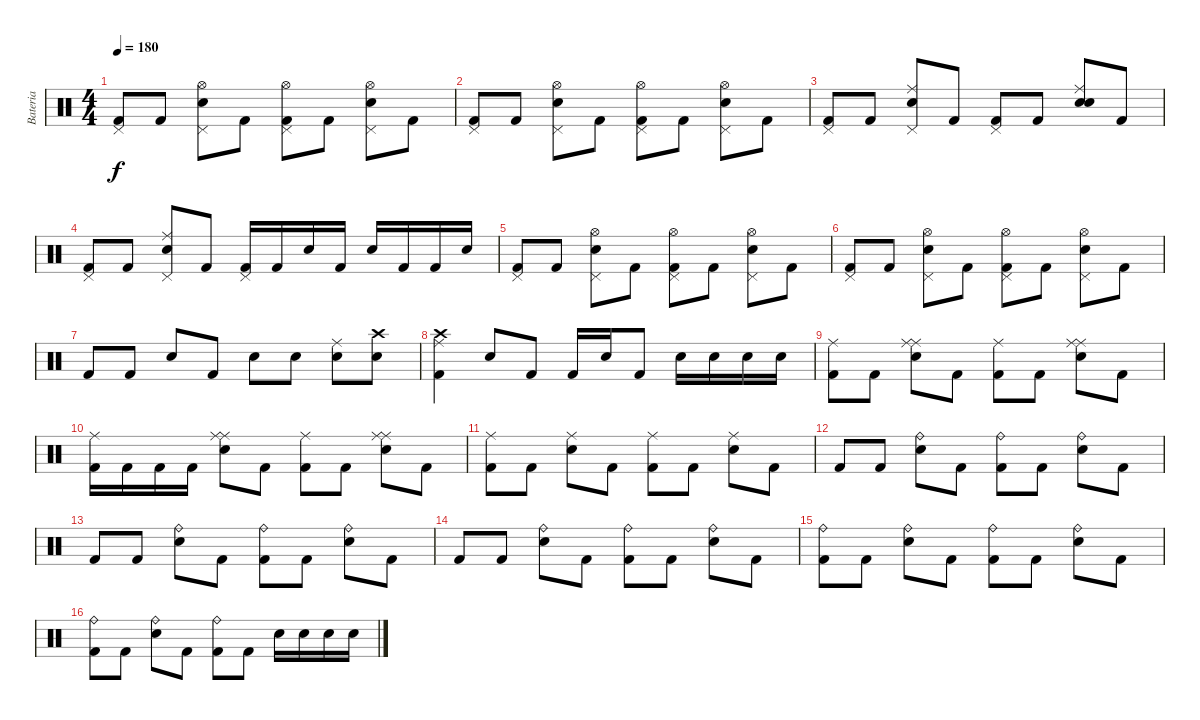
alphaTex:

\track ("Bateria" "Bateria") {instrument percussion}
\staff {score}
\articulation defaults
\ts (4 4)
\tempo 180
\clef neutral
\ks c
("Kick (hit) 2" "Pedal Hi-Hat (hit)").8{dy f} "Kick (hit) 2".8 ("Electric Snare (hit)" "Pedal Hi-Hat (hit)" "Hi-Hat (open)").8 "Kick (hit) 2".8 ("Kick (hit) 2" "Pedal Hi-Hat (hit)" "Hi-Hat (open)").8 "Kick (hit) 2".8 ("Electric Snare (hit)" "Pedal Hi-Hat (hit)" "Hi-Hat (open)").8 "Kick (hit) 2".8 |
("Kick (hit) 2" "Pedal Hi-Hat (hit)").8 "Kick (hit) 2".8 ("Electric Snare (hit)" "Pedal Hi-Hat (hit)" "Hi-Hat (open)").8 "Kick (hit) 2".8 ("Kick (hit) 2" "Pedal Hi-Hat (hit)" "Hi-Hat (open)").8 "Kick (hit) 2".8 ("Electric Snare (hit)" "Pedal Hi-Hat (hit)" "Hi-Hat (open)").8 "Kick (hit) 2".8 |
("Kick (hit) 2" "Pedal Hi-Hat (hit)").8 "Kick (hit) 2".8 ("Electric Snare (hit)" "Ride (middle)" "Pedal Hi-Hat (hit)").8 "Kick (hit) 2".8 ("Kick (hit) 2" "Pedal Hi-Hat (hit)").8 "Kick (hit) 2".8 ("Electric Snare (hit)" "Ride (middle)" "Snare (hit)").8 "Kick (hit) 2".8 |
("Kick (hit) 2" "Pedal Hi-Hat (hit)").8 "Kick (hit) 2".8 ("Electric Snare (hit)" "Ride (middle)" "Pedal Hi-Hat (hit)").8 "Kick (hit) 2".8 ("Kick (hit) 2" "Pedal Hi-Hat (hit)").16 "Kick (hit) 2".16 "Electric Snare (hit)".16 "Kick (hit) 2".16 "Electric Snare (hit)".16 "Kick (hit) 2".16 "Kick (hit) 2".16 "Electric Snare (hit)".16 |
("Kick (hit) 2" "Pedal Hi-Hat (hit)").8 "Kick (hit) 2".8 ("Electric Snare (hit)" "Pedal Hi-Hat (hit)" "Hi-Hat (open)").8 "Kick (hit) 2".8 ("Kick (hit) 2" "Pedal Hi-Hat (hit)" "Hi-Hat (open)").8 "Kick (hit) 2".8 ("Electric Snare (hit)" "Pedal Hi-Hat (hit)" "Hi-Hat (open)").8 "Kick (hit) 2".8 |
("Kick (hit) 2" "Pedal Hi-Hat (hit)").8 "Kick (hit) 2".8 ("Electric Snare (hit)" "Pedal Hi-Hat (hit)" "Hi-Hat (open)").8 "Kick (hit) 2".8 ("Kick (hit) 2" "Pedal Hi-Hat (hit)" "Hi-Hat (open)").8 "Kick (hit) 2".8 ("Electric Snare (hit)" "Pedal Hi-Hat (hit)" "Hi-Hat (open)").8 "Kick (hit) 2".8 |
"Kick (hit) 2".8 "Kick (hit) 2".8 "Electric Snare (hit)".8 "Kick (hit) 2".8 "Electric Snare (hit)".8 "Electric Snare (hit)".8 ("Electric Snare (hit)" "Ride (middle)").8 ("Electric Snare (hit)" "Crash high (hit)").8 |
("Kick (hit) 2" "Ride (middle)" "Crash high (hit)").4 "Electric Snare (hit)".8 "Kick (hit) 2".8 "Kick (hit) 2".16 "Electric Snare (hit)".16 "Kick (hit) 2".8 "Electric Snare (hit)".16 "Electric Snare (hit)".16 "Electric Snare (hit)".16 "Electric Snare (hit)".16 |
("Kick (hit) 2" "Ride (middle)").8 "Kick (hit) 2".8 ("Electric Snare (hit)" "Ride (middle)" "Ride (middle)").8 "Kick (hit) 2".8 ("Kick (hit) 2" "Ride (middle)").8 "Kick (hit) 2".8 ("Electric Snare (hit)" "Ride (middle)" "Ride (middle)").8 "Kick (hit) 2".8 |
("Kick (hit) 2" "Ride (middle)").16 "Kick (hit) 2".16 "Kick (hit) 2".16 "Kick (hit) 2".16 ("Electric Snare (hit)" "Ride (middle)" "Ride (middle)").8 "Kick (hit) 2".8 ("Kick (hit) 2" "Ride (middle)").8 "Kick (hit) 2".8 ("Electric Snare (hit)" "Ride (middle)" "Ride (middle)").8 "Kick (hit) 2".8 |
("Kick (hit) 2" "Ride (middle)").8 "Kick (hit) 2".8 ("Electric Snare (hit)" "Ride (middle)").8 "Kick (hit) 2".8 ("Kick (hit) 2" "Ride (middle)").8 "Kick (hit) 2".8 ("Electric Snare (hit)" "Ride (middle)").8 "Kick (hit) 2".8 |
"Kick (hit) 2".8 "Kick (hit) 2".8 ("Electric Snare (hit)" "Ride (bell)").8 "Kick (hit) 2".8 ("Kick (hit) 2" "Ride (bell)").8 "Kick (hit) 2".8 ("Electric Snare (hit)" "Ride (bell)").8 "Kick (hit) 2".8 |
"Kick (hit) 2".8 "Kick (hit) 2".8 ("Electric Snare (hit)" "Ride (bell)").8 "Kick (hit) 2".8 ("Kick (hit) 2" "Ride (bell)").8 "Kick (hit) 2".8 ("Electric Snare (hit)" "Ride (bell)").8 "Kick (hit) 2".8 |
"Kick (hit) 2".8 "Kick (hit) 2".8 ("Electric Snare (hit)" "Ride (bell)").8 "Kick (hit) 2".8 ("Kick (hit) 2" "Ride (bell)").8 "Kick (hit) 2".8 ("Electric Snare (hit)" "Ride (bell)").8 "Kick (hit) 2".8 |
("Kick (hit) 2" "Ride (bell)").8 "Kick (hit) 2".8 ("Electric Snare (hit)" "Ride (bell)").8 "Kick (hit) 2".8 ("Kick (hit) 2" "Ride (bell)").8 "Kick (hit) 2".8 ("Electric Snare (hit)" "Ride (bell)").8 "Kick (hit) 2".8 |
("Kick (hit) 2" "Ride (bell)").8 "Kick (hit) 2".8 ("Electric Snare (hit)" "Ride (bell)").8 "Kick (hit) 2".8 ("Kick (hit) 2" "Ride (bell)").8 "Kick (hit) 2".8 "Electric Snare (hit)".16 "Electric Snare (hit)".16 "Electric Snare (hit)".16 "Electric Snare (hit)".16
